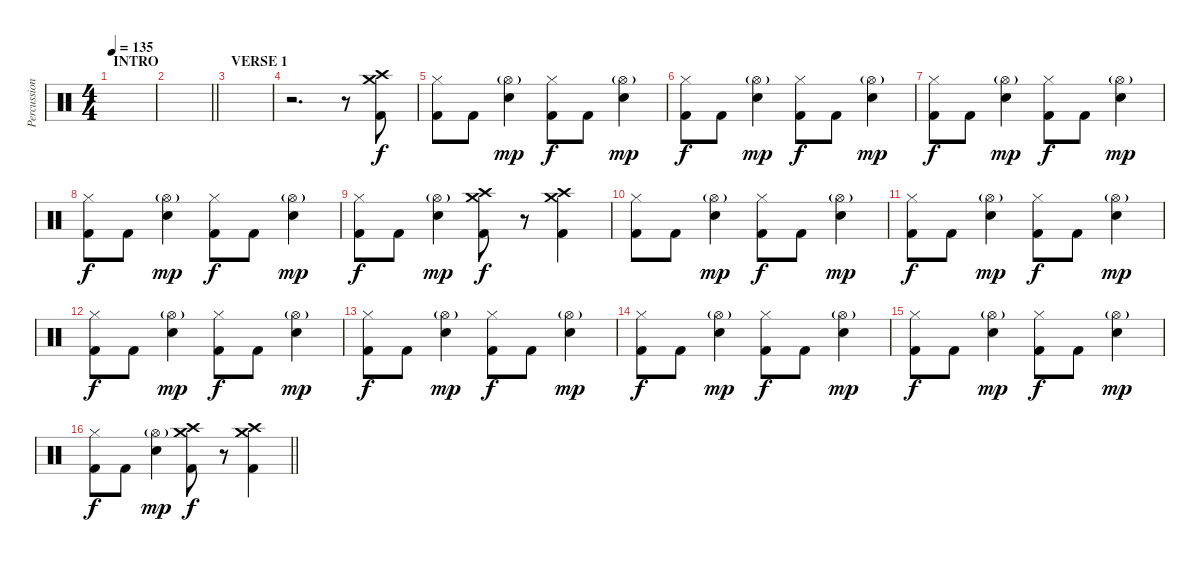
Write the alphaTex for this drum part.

\track ("Percussion" "Percussion") {instrument percussion}
\staff {score}
\articulation defaults
\ts (4 4)
\section ("" "INTRO")
\tempo 135
\clef neutral
\ks c
|
\barLineRight lightlight
|
\section ("" "VERSE 1")
|
r.2{d} r.8 ("Kick (hit) 2" "Crash medium (hit)" "Crash high (hit)").8 |
("Hi-Hat (closed)" "Kick (hit) 2").8 "Kick (hit) 2".8 ("Hi-Hat (open)"{g} "Electric Snare (hit)").4{dy mp} ("Hi-Hat (closed)" "Kick (hit) 2").8{dy f} "Kick (hit) 2".8 ("Hi-Hat (open)"{g} "Electric Snare (hit)").4{dy mp} |
("Hi-Hat (closed)" "Kick (hit) 2").8{dy f} "Kick (hit) 2".8 ("Hi-Hat (open)"{g} "Electric Snare (hit)").4{dy mp} ("Hi-Hat (closed)" "Kick (hit) 2").8{dy f} "Kick (hit) 2".8 ("Hi-Hat (open)"{g} "Electric Snare (hit)").4{dy mp} |
("Hi-Hat (closed)" "Kick (hit) 2").8{dy f} "Kick (hit) 2".8 ("Hi-Hat (open)"{g} "Electric Snare (hit)").4{dy mp} ("Hi-Hat (closed)" "Kick (hit) 2").8{dy f} "Kick (hit) 2".8 ("Hi-Hat (open)"{g} "Electric Snare (hit)").4{dy mp} |
("Hi-Hat (closed)" "Kick (hit) 2").8{dy f} "Kick (hit) 2".8 ("Hi-Hat (open)"{g} "Electric Snare (hit)").4{dy mp} ("Hi-Hat (closed)" "Kick (hit) 2").8{dy f} "Kick (hit) 2".8 ("Hi-Hat (open)"{g} "Electric Snare (hit)").4{dy mp} |
("Hi-Hat (closed)" "Kick (hit) 2").8{dy f} "Kick (hit) 2".8 ("Hi-Hat (open)"{g} "Electric Snare (hit)").4{dy mp} ("Crash high (hit)" "Crash medium (hit)" "Kick (hit) 2").8{dy f} r.8 ("Crash high (hit)" "Crash medium (hit)" "Kick (hit) 2").4 |
("Hi-Hat (closed)" "Kick (hit) 2").8 "Kick (hit) 2".8 ("Hi-Hat (open)"{g} "Electric Snare (hit)").4{dy mp} ("Hi-Hat (closed)" "Kick (hit) 2").8{dy f} "Kick (hit) 2".8 ("Hi-Hat (open)"{g} "Electric Snare (hit)").4{dy mp} |
("Hi-Hat (closed)" "Kick (hit) 2").8{dy f} "Kick (hit) 2".8 ("Hi-Hat (open)"{g} "Electric Snare (hit)").4{dy mp} ("Hi-Hat (closed)" "Kick (hit) 2").8{dy f} "Kick (hit) 2".8 ("Hi-Hat (open)"{g} "Electric Snare (hit)").4{dy mp} |
("Hi-Hat (closed)" "Kick (hit) 2").8{dy f} "Kick (hit) 2".8 ("Hi-Hat (open)"{g} "Electric Snare (hit)").4{dy mp} ("Hi-Hat (closed)" "Kick (hit) 2").8{dy f} "Kick (hit) 2".8 ("Hi-Hat (open)"{g} "Electric Snare (hit)").4{dy mp} |
("Hi-Hat (closed)" "Kick (hit) 2").8{dy f} "Kick (hit) 2".8 ("Hi-Hat (open)"{g} "Electric Snare (hit)").4{dy mp} ("Hi-Hat (closed)" "Kick (hit) 2").8{dy f} "Kick (hit) 2".8 ("Hi-Hat (open)"{g} "Electric Snare (hit)").4{dy mp} |
("Hi-Hat (closed)" "Kick (hit) 2").8{dy f} "Kick (hit) 2".8 ("Hi-Hat (open)"{g} "Electric Snare (hit)").4{dy mp} ("Hi-Hat (closed)" "Kick (hit) 2").8{dy f} "Kick (hit) 2".8 ("Hi-Hat (open)"{g} "Electric Snare (hit)").4{dy mp} |
("Hi-Hat (closed)" "Kick (hit) 2").8{dy f} "Kick (hit) 2".8 ("Hi-Hat (open)"{g} "Electric Snare (hit)").4{dy mp} ("Hi-Hat (closed)" "Kick (hit) 2").8{dy f} "Kick (hit) 2".8 ("Hi-Hat (open)"{g} "Electric Snare (hit)").4{dy mp} |
\barLineRight lightlight
("Hi-Hat (closed)" "Kick (hit) 2").8{dy f} "Kick (hit) 2".8 ("Hi-Hat (open)"{g} "Electric Snare (hit)").4{dy mp} ("Crash high (hit)" "Crash medium (hit)" "Kick (hit) 2").8{dy f} r.8 ("Crash high (hit)" "Crash medium (hit)" "Kick (hit) 2").4
